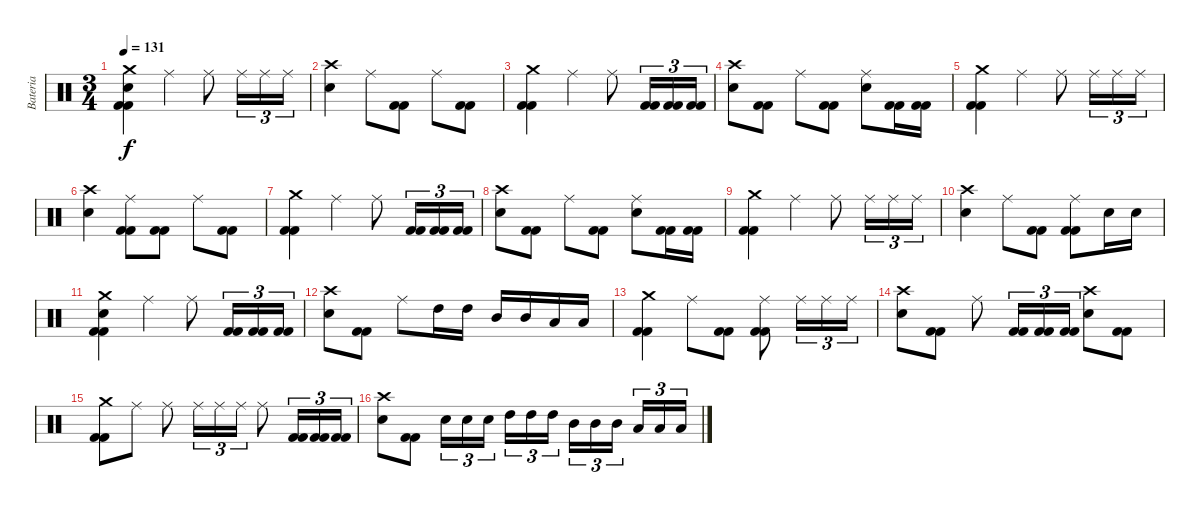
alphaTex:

\track ("Bateria" "Bateria") {instrument percussion}
\staff {score}
\articulation defaults
\ts (3 4)
\tempo 131
\clef neutral
\ks c
("Kick (hit) 2" "Kick (hit) 2" "Snare (hit) 2" "Crash medium (hit)").4{dy f} "Ride (middle)".4 "Ride (middle)".8 "Ride (middle)".16{tu (3 2)} "Ride (middle)".16{tu (3 2)} "Ride (middle)".16{tu (3 2)} |
("Snare (hit) 2" "Crash high (hit)").4 "Ride (middle)".8 ("Kick (hit) 2" "Kick (hit) 2").8 "Ride (middle)".8 ("Kick (hit) 2" "Kick (hit) 2").8 |
("Kick (hit) 2" "Kick (hit) 2" "Crash medium (hit)").4 "Ride (middle)".4 "Ride (middle)".8 ("Kick (hit) 2" "Kick (hit) 2").16{tu (3 2)} ("Kick (hit) 2" "Kick (hit) 2").16{tu (3 2)} ("Kick (hit) 2" "Kick (hit) 2").16{tu (3 2)} |
("Snare (hit) 2" "Crash high (hit)").8 ("Kick (hit) 2" "Kick (hit) 2").8 "Ride (middle)".8 ("Kick (hit) 2" "Kick (hit) 2").8 ("Snare (hit) 2" "Ride (middle)").8 ("Kick (hit) 2" "Kick (hit) 2").16 ("Kick (hit) 2" "Kick (hit) 2").16 |
("Kick (hit) 2" "Kick (hit) 2" "Crash medium (hit)").4 "Ride (middle)".4 "Ride (middle)".8 "Ride (middle)".16{tu (3 2)} "Ride (middle)".16{tu (3 2)} "Ride (middle)".16{tu (3 2)} |
("Snare (hit) 2" "Crash high (hit)").4 ("Kick (hit) 2" "Kick (hit) 2" "Ride (middle)").8 ("Kick (hit) 2" "Kick (hit) 2").8 "Ride (middle)".8 ("Kick (hit) 2" "Kick (hit) 2").8 |
("Kick (hit) 2" "Kick (hit) 2" "Crash medium (hit)").4 "Ride (middle)".4 "Ride (middle)".8 ("Kick (hit) 2" "Kick (hit) 2").16{tu (3 2)} ("Kick (hit) 2" "Kick (hit) 2").16{tu (3 2)} ("Kick (hit) 2" "Kick (hit) 2").16{tu (3 2)} |
("Snare (hit) 2" "Crash high (hit)").8 ("Kick (hit) 2" "Kick (hit) 2").8 "Ride (middle)".8 ("Kick (hit) 2" "Kick (hit) 2").8 ("Snare (hit) 2" "Ride (middle)").8 ("Kick (hit) 2" "Kick (hit) 2").16 ("Kick (hit) 2" "Kick (hit) 2").16 |
("Kick (hit) 2" "Kick (hit) 2" "Crash medium (hit)").4 "Ride (middle)".4 "Ride (middle)".8 "Ride (middle)".16{tu (3 2)} "Ride (middle)".16{tu (3 2)} "Ride (middle)".16{tu (3 2)} |
("Snare (hit) 2" "Crash high (hit)").4 "Ride (middle)".8 ("Kick (hit) 2" "Kick (hit) 2").8 ("Kick (hit) 2" "Kick (hit) 2" "Ride (middle)").8 "Snare (hit) 2".16 "Snare (hit) 2".16 |
("Kick (hit) 2" "Kick (hit) 2" "Snare (hit) 2" "Crash medium (hit)").4 "Ride (middle)".4 "Ride (middle)".8 ("Kick (hit) 2" "Kick (hit) 2").16{tu (3 2)} ("Kick (hit) 2" "Kick (hit) 2").16{tu (3 2)} ("Kick (hit) 2" "Kick (hit) 2").16{tu (3 2)} |
("Snare (hit) 2" "Crash high (hit)").8 ("Kick (hit) 2" "Kick (hit) 2").8 "Ride (middle)".8 "High Tom (hit)".16 "High Tom (hit)".16 "Mid Tom (hit)".16 "Mid Tom (hit)".16 "Low Tom (hit)".16 "Low Tom (hit)".16 |
("Kick (hit) 2" "Kick (hit) 2" "Crash medium (hit)").4 "Ride (middle)".8 ("Kick (hit) 2" "Kick (hit) 2").8 ("Kick (hit) 2" "Kick (hit) 2" "Ride (middle)").8 "Ride (middle)".16{tu (3 2)} "Ride (middle)".16{tu (3 2)} "Ride (middle)".16{tu (3 2)} |
("Snare (hit) 2" "Crash high (hit)").8 ("Kick (hit) 2" "Kick (hit) 2").8 "Ride (middle)".8 ("Kick (hit) 2" "Kick (hit) 2").16{tu (3 2)} ("Kick (hit) 2" "Kick (hit) 2").16{tu (3 2)} ("Kick (hit) 2" "Kick (hit) 2").16{tu (3 2)} ("Snare (hit) 2" "Crash high (hit)").8 ("Kick (hit) 2" "Kick (hit) 2").8 |
("Kick (hit) 2" "Kick (hit) 2" "Crash medium (hit)").8 "Ride (middle)".8 "Ride (middle)".8 "Ride (middle)".16{tu (3 2)} "Ride (middle)".16{tu (3 2)} "Ride (middle)".16{tu (3 2)} "Ride (middle)".8 ("Kick (hit) 2" "Kick (hit) 2").16{tu (3 2)} ("Kick (hit) 2" "Kick (hit) 2").16{tu (3 2)} ("Kick (hit) 2" "Kick (hit) 2").16{tu (3 2)} |
("Snare (hit) 2" "Crash high (hit)").8 ("Kick (hit) 2" "Kick (hit) 2").8 "Electric Snare (hit)".16{tu (3 2)} "Electric Snare (hit)".16{tu (3 2)} "Electric Snare (hit)".16{tu (3 2)} "High Tom (hit)".16{tu (3 2)} "High Tom (hit)".16{tu (3 2)} "High Tom (hit)".16{tu (3 2)} "Mid Tom (hit)".16{tu (3 2)} "Mid Tom (hit)".16{tu (3 2)} "Mid Tom (hit)".16{tu (3 2)} "Low Tom (hit)".16{tu (3 2)} "Low Tom (hit)".16{tu (3 2)} "Low Tom (hit)".16{tu (3 2)}
